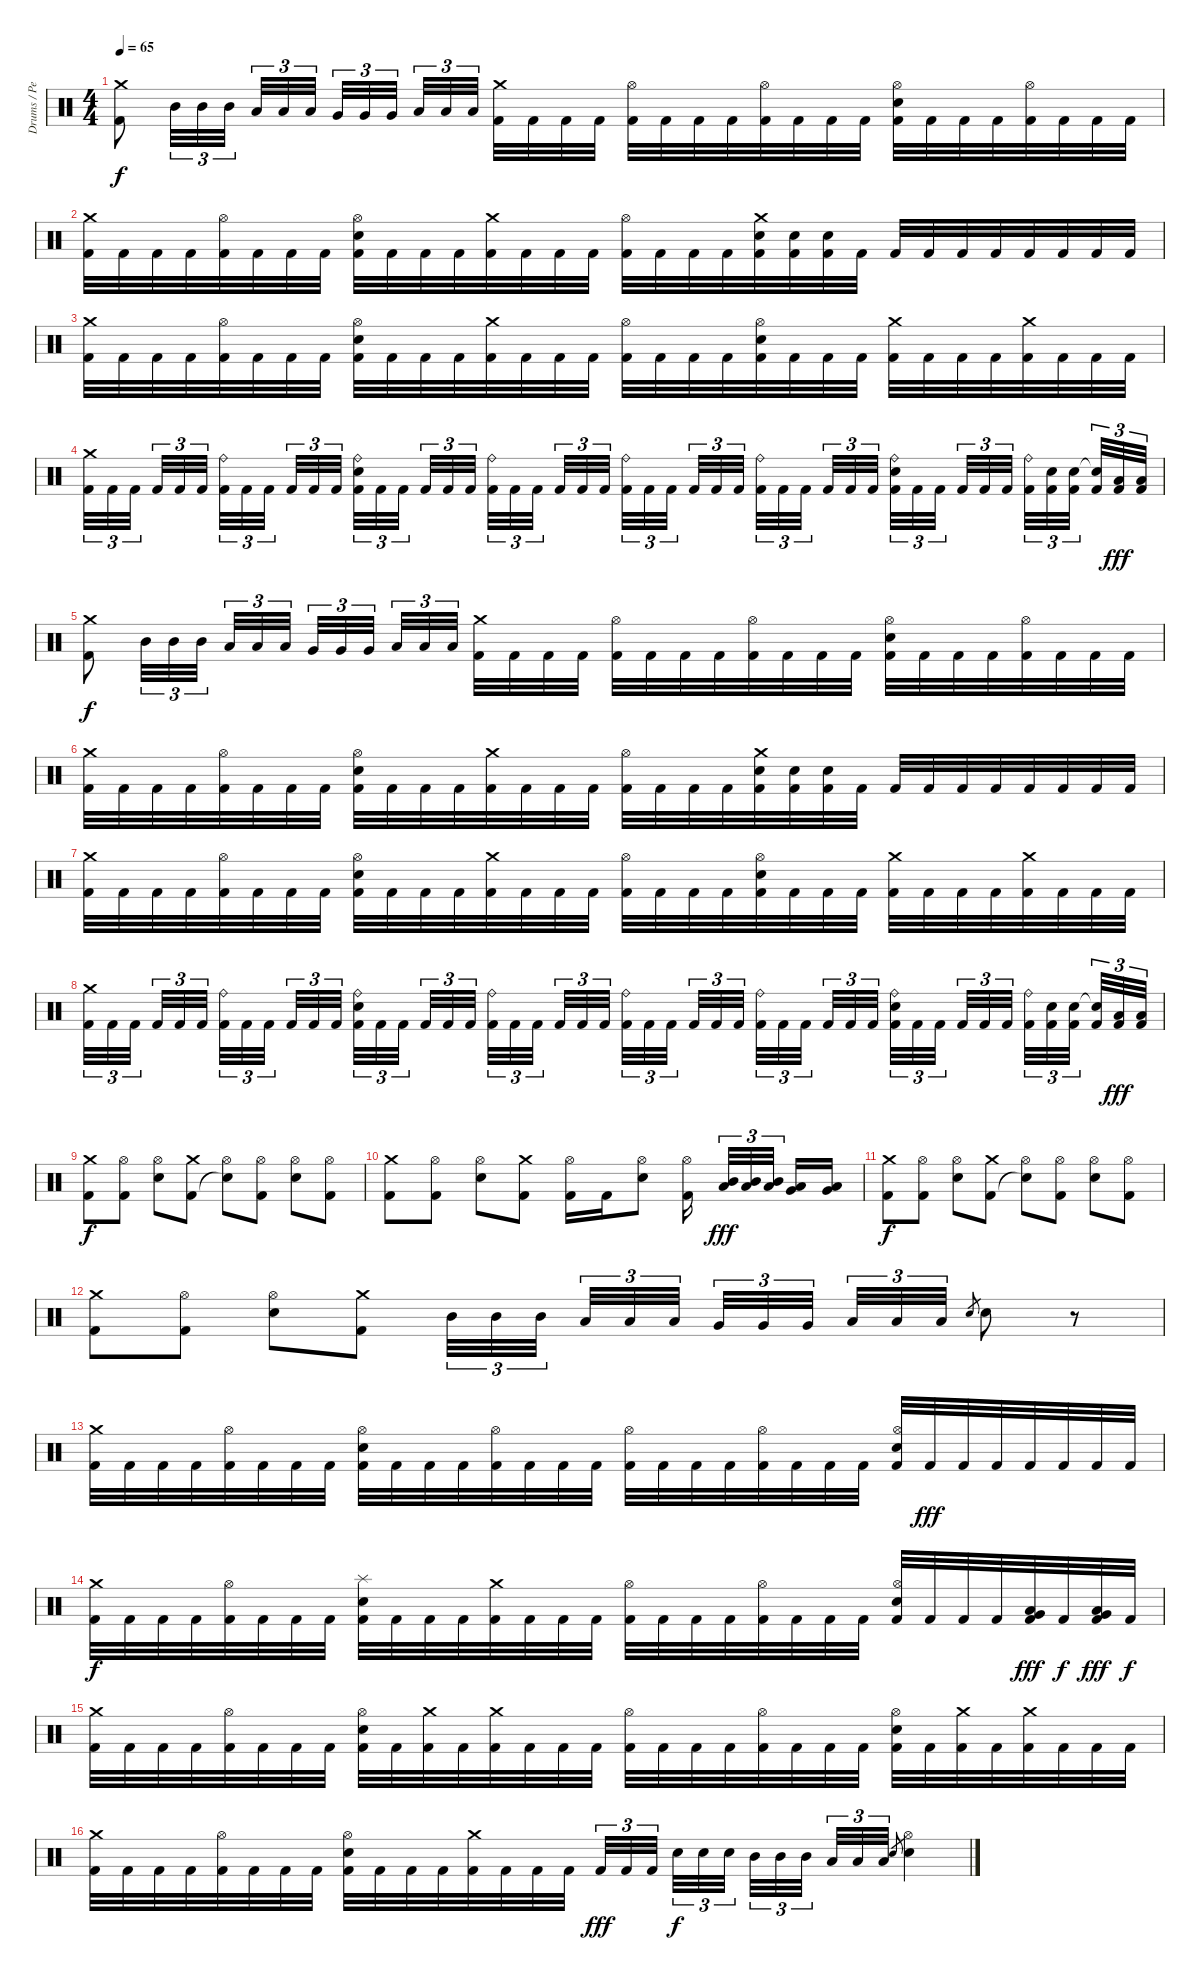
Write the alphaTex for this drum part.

\track ("Drums / Percussion" "Drums / Pe") {instrument percussion}
\staff {score}
\articulation defaults
\ts (4 4)
\tempo 65
\clef neutral
\ks c
("Crash medium (hit)" "Kick (hit) 2").8{dy f} "Mid Tom (hit)".32{tu (3 2)} "Mid Tom (hit)".32{tu (3 2)} "Mid Tom (hit)".32{tu (3 2)} "Low Tom (hit)".32{tu (3 2)} "Low Tom (hit)".32{tu (3 2)} "Low Tom (hit)".32{tu (3 2)} "Very Low Tom (hit)".32{tu (3 2)} "Very Low Tom (hit)".32{tu (3 2)} "Very Low Tom (hit)".32{tu (3 2)} "Low Floor Tom (hit)".32{tu (3 2)} "Low Floor Tom (hit)".32{tu (3 2)} "Low Floor Tom (hit)".32{tu (3 2)} ("Crash medium (hit)" "Kick (hit) 2").32 "Kick (hit) 2".32 "Kick (hit) 2".32 "Kick (hit) 2".32 ("Hi-Hat (open)" "Kick (hit) 2").32 "Kick (hit) 2".32 "Kick (hit) 2".32 "Kick (hit) 2".32 ("Hi-Hat (open)" "Kick (hit) 2").32 "Kick (hit) 2".32 "Kick (hit) 2".32 "Kick (hit) 2".32 ("Hi-Hat (open)" "Electric Snare (hit)" "Kick (hit) 2").32 "Kick (hit) 2".32 "Kick (hit) 2".32 "Kick (hit) 2".32 ("Hi-Hat (open)" "Kick (hit) 2").32 "Kick (hit) 2".32 "Kick (hit) 2".32 "Kick (hit) 2".32 |
("Crash medium (hit)" "Kick (hit) 2").32 "Kick (hit) 2".32 "Kick (hit) 2".32 "Kick (hit) 2".32 ("Hi-Hat (open)" "Kick (hit) 2").32 "Kick (hit) 2".32 "Kick (hit) 2".32 "Kick (hit) 2".32 ("Hi-Hat (open)" "Electric Snare (hit)" "Kick (hit) 2").32 "Kick (hit) 2".32 "Kick (hit) 2".32 "Kick (hit) 2".32 ("Crash medium (hit)" "Kick (hit) 2").32 "Kick (hit) 2".32 "Kick (hit) 2".32 "Kick (hit) 2".32 ("Hi-Hat (open)" "Kick (hit) 2").32 "Kick (hit) 2".32 "Kick (hit) 2".32 "Kick (hit) 2".32 ("Crash medium (hit)" "Electric Snare (hit)" "Kick (hit) 2").32 ("Electric Snare (hit)" "Kick (hit) 2").32 ("Electric Snare (hit)" "Kick (hit) 2").32 "Kick (hit) 2".32 "Kick (hit) 2".32 "Kick (hit) 2".32 "Kick (hit) 2".32 "Kick (hit) 2".32 "Kick (hit) 2".32 "Kick (hit) 2".32 "Kick (hit) 2".32 "Kick (hit) 2".32 |
("Crash medium (hit)" "Kick (hit) 2").32 "Kick (hit) 2".32 "Kick (hit) 2".32 "Kick (hit) 2".32 ("Hi-Hat (open)" "Kick (hit) 2").32 "Kick (hit) 2".32 "Kick (hit) 2".32 "Kick (hit) 2".32 ("Hi-Hat (open)" "Electric Snare (hit)" "Kick (hit) 2").32 "Kick (hit) 2".32 "Kick (hit) 2".32 "Kick (hit) 2".32 ("Crash medium (hit)" "Kick (hit) 2").32 "Kick (hit) 2".32 "Kick (hit) 2".32 "Kick (hit) 2".32 ("Hi-Hat (open)" "Kick (hit) 2").32 "Kick (hit) 2".32 "Kick (hit) 2".32 "Kick (hit) 2".32 ("Hi-Hat (open)" "Electric Snare (hit)" "Kick (hit) 2").32 "Kick (hit) 2".32 "Kick (hit) 2".32 "Kick (hit) 2".32 ("Crash medium (hit)" "Kick (hit) 2").32 "Kick (hit) 2".32 "Kick (hit) 2".32 "Kick (hit) 2".32 ("Crash medium (hit)" "Kick (hit) 2").32 "Kick (hit) 2".32 "Kick (hit) 2".32 "Kick (hit) 2".32 |
("Crash medium (hit)" "Kick (hit) 2").32{tu (3 2)} "Kick (hit) 2".32{tu (3 2)} "Kick (hit) 2".32{tu (3 2)} "Kick (hit) 2".32{tu (3 2)} "Kick (hit) 2".32{tu (3 2)} "Kick (hit) 2".32{tu (3 2)} ("Ride (bell)" "Kick (hit) 2").32{tu (3 2)} "Kick (hit) 2".32{tu (3 2)} "Kick (hit) 2".32{tu (3 2)} "Kick (hit) 2".32{tu (3 2)} "Kick (hit) 2".32{tu (3 2)} "Kick (hit) 2".32{tu (3 2)} ("Ride (bell)" "Electric Snare (hit)" "Kick (hit) 2").32{tu (3 2)} "Kick (hit) 2".32{tu (3 2)} "Kick (hit) 2".32{tu (3 2)} "Kick (hit) 2".32{tu (3 2)} "Kick (hit) 2".32{tu (3 2)} "Kick (hit) 2".32{tu (3 2)} ("Ride (bell)" "Kick (hit) 2").32{tu (3 2)} "Kick (hit) 2".32{tu (3 2)} "Kick (hit) 2".32{tu (3 2)} "Kick (hit) 2".32{tu (3 2)} "Kick (hit) 2".32{tu (3 2)} "Kick (hit) 2".32{tu (3 2)} ("Ride (bell)" "Kick (hit) 2").32{tu (3 2)} "Kick (hit) 2".32{tu (3 2)} "Kick (hit) 2".32{tu (3 2)} "Kick (hit) 2".32{tu (3 2)} "Kick (hit) 2".32{tu (3 2)} "Kick (hit) 2".32{tu (3 2)} ("Ride (bell)" "Kick (hit) 2").32{tu (3 2)} "Kick (hit) 2".32{tu (3 2)} "Kick (hit) 2".32{tu (3 2)} "Kick (hit) 2".32{tu (3 2)} "Kick (hit) 2".32{tu (3 2)} "Kick (hit) 2".32{tu (3 2)} ("Ride (bell)" "Electric Snare (hit)" "Kick (hit) 2").32{tu (3 2)} "Kick (hit) 2".32{tu (3 2)} "Kick (hit) 2".32{tu (3 2)} "Kick (hit) 2".32{tu (3 2)} "Kick (hit) 2".32{tu (3 2)} "Kick (hit) 2".32{tu (3 2)} ("Ride (bell)" "Kick (hit) 2").32{tu (3 2)} ("Electric Snare (hit)" "Kick (hit) 2").32{tu (3 2)} ("Electric Snare (hit)" "Kick (hit) 2").32{tu (3 2)} ("Electric Snare (hit)"{t} "Kick (hit) 2").32{tu (3 2)} ("Low Tom (hit)" "Kick (hit) 2").32{tu (3 2) dy fff} ("Low Tom (hit)" "Kick (hit) 2").32{tu (3 2)} |
("Crash medium (hit)" "Kick (hit) 2").8{dy f} "Mid Tom (hit)".32{tu (3 2)} "Mid Tom (hit)".32{tu (3 2)} "Mid Tom (hit)".32{tu (3 2)} "Low Tom (hit)".32{tu (3 2)} "Low Tom (hit)".32{tu (3 2)} "Low Tom (hit)".32{tu (3 2)} "Very Low Tom (hit)".32{tu (3 2)} "Very Low Tom (hit)".32{tu (3 2)} "Very Low Tom (hit)".32{tu (3 2)} "Low Floor Tom (hit)".32{tu (3 2)} "Low Floor Tom (hit)".32{tu (3 2)} "Low Floor Tom (hit)".32{tu (3 2)} ("Crash medium (hit)" "Kick (hit) 2").32 "Kick (hit) 2".32 "Kick (hit) 2".32 "Kick (hit) 2".32 ("Hi-Hat (open)" "Kick (hit) 2").32 "Kick (hit) 2".32 "Kick (hit) 2".32 "Kick (hit) 2".32 ("Hi-Hat (open)" "Kick (hit) 2").32 "Kick (hit) 2".32 "Kick (hit) 2".32 "Kick (hit) 2".32 ("Hi-Hat (open)" "Electric Snare (hit)" "Kick (hit) 2").32 "Kick (hit) 2".32 "Kick (hit) 2".32 "Kick (hit) 2".32 ("Hi-Hat (open)" "Kick (hit) 2").32 "Kick (hit) 2".32 "Kick (hit) 2".32 "Kick (hit) 2".32 |
("Crash medium (hit)" "Kick (hit) 2").32 "Kick (hit) 2".32 "Kick (hit) 2".32 "Kick (hit) 2".32 ("Hi-Hat (open)" "Kick (hit) 2").32 "Kick (hit) 2".32 "Kick (hit) 2".32 "Kick (hit) 2".32 ("Hi-Hat (open)" "Electric Snare (hit)" "Kick (hit) 2").32 "Kick (hit) 2".32 "Kick (hit) 2".32 "Kick (hit) 2".32 ("Crash medium (hit)" "Kick (hit) 2").32 "Kick (hit) 2".32 "Kick (hit) 2".32 "Kick (hit) 2".32 ("Hi-Hat (open)" "Kick (hit) 2").32 "Kick (hit) 2".32 "Kick (hit) 2".32 "Kick (hit) 2".32 ("Crash medium (hit)" "Electric Snare (hit)" "Kick (hit) 2").32 ("Electric Snare (hit)" "Kick (hit) 2").32 ("Electric Snare (hit)" "Kick (hit) 2").32 "Kick (hit) 2".32 "Kick (hit) 2".32 "Kick (hit) 2".32 "Kick (hit) 2".32 "Kick (hit) 2".32 "Kick (hit) 2".32 "Kick (hit) 2".32 "Kick (hit) 2".32 "Kick (hit) 2".32 |
("Crash medium (hit)" "Kick (hit) 2").32 "Kick (hit) 2".32 "Kick (hit) 2".32 "Kick (hit) 2".32 ("Hi-Hat (open)" "Kick (hit) 2").32 "Kick (hit) 2".32 "Kick (hit) 2".32 "Kick (hit) 2".32 ("Hi-Hat (open)" "Electric Snare (hit)" "Kick (hit) 2").32 "Kick (hit) 2".32 "Kick (hit) 2".32 "Kick (hit) 2".32 ("Crash medium (hit)" "Kick (hit) 2").32 "Kick (hit) 2".32 "Kick (hit) 2".32 "Kick (hit) 2".32 ("Hi-Hat (open)" "Kick (hit) 2").32 "Kick (hit) 2".32 "Kick (hit) 2".32 "Kick (hit) 2".32 ("Hi-Hat (open)" "Electric Snare (hit)" "Kick (hit) 2").32 "Kick (hit) 2".32 "Kick (hit) 2".32 "Kick (hit) 2".32 ("Crash medium (hit)" "Kick (hit) 2").32 "Kick (hit) 2".32 "Kick (hit) 2".32 "Kick (hit) 2".32 ("Crash medium (hit)" "Kick (hit) 2").32 "Kick (hit) 2".32 "Kick (hit) 2".32 "Kick (hit) 2".32 |
("Crash medium (hit)" "Kick (hit) 2").32{tu (3 2)} "Kick (hit) 2".32{tu (3 2)} "Kick (hit) 2".32{tu (3 2)} "Kick (hit) 2".32{tu (3 2)} "Kick (hit) 2".32{tu (3 2)} "Kick (hit) 2".32{tu (3 2)} ("Ride (bell)" "Kick (hit) 2").32{tu (3 2)} "Kick (hit) 2".32{tu (3 2)} "Kick (hit) 2".32{tu (3 2)} "Kick (hit) 2".32{tu (3 2)} "Kick (hit) 2".32{tu (3 2)} "Kick (hit) 2".32{tu (3 2)} ("Ride (bell)" "Electric Snare (hit)" "Kick (hit) 2").32{tu (3 2)} "Kick (hit) 2".32{tu (3 2)} "Kick (hit) 2".32{tu (3 2)} "Kick (hit) 2".32{tu (3 2)} "Kick (hit) 2".32{tu (3 2)} "Kick (hit) 2".32{tu (3 2)} ("Ride (bell)" "Kick (hit) 2").32{tu (3 2)} "Kick (hit) 2".32{tu (3 2)} "Kick (hit) 2".32{tu (3 2)} "Kick (hit) 2".32{tu (3 2)} "Kick (hit) 2".32{tu (3 2)} "Kick (hit) 2".32{tu (3 2)} ("Ride (bell)" "Kick (hit) 2").32{tu (3 2)} "Kick (hit) 2".32{tu (3 2)} "Kick (hit) 2".32{tu (3 2)} "Kick (hit) 2".32{tu (3 2)} "Kick (hit) 2".32{tu (3 2)} "Kick (hit) 2".32{tu (3 2)} ("Ride (bell)" "Kick (hit) 2").32{tu (3 2)} "Kick (hit) 2".32{tu (3 2)} "Kick (hit) 2".32{tu (3 2)} "Kick (hit) 2".32{tu (3 2)} "Kick (hit) 2".32{tu (3 2)} "Kick (hit) 2".32{tu (3 2)} ("Ride (bell)" "Electric Snare (hit)" "Kick (hit) 2").32{tu (3 2)} "Kick (hit) 2".32{tu (3 2)} "Kick (hit) 2".32{tu (3 2)} "Kick (hit) 2".32{tu (3 2)} "Kick (hit) 2".32{tu (3 2)} "Kick (hit) 2".32{tu (3 2)} ("Ride (bell)" "Kick (hit) 2").32{tu (3 2)} ("Electric Snare (hit)" "Kick (hit) 2").32{tu (3 2)} ("Electric Snare (hit)" "Kick (hit) 2").32{tu (3 2)} ("Electric Snare (hit)"{t} "Kick (hit) 2").32{tu (3 2)} ("Low Tom (hit)" "Kick (hit) 2").32{tu (3 2) dy fff} ("Low Tom (hit)" "Kick (hit) 2").32{tu (3 2)} |
("Crash medium (hit)" "Kick (hit) 2").8{dy f} ("Hi-Hat (open)" "Kick (hit) 2").8 ("Hi-Hat (open)" "Electric Snare (hit)").8 ("Crash medium (hit)" "Kick (hit) 2").8 ("Hi-Hat (open)" "Snare (hit)"{t}).8 ("Hi-Hat (open)" "Kick (hit) 2").8 ("Hi-Hat (open)" "Electric Snare (hit)").8 ("Hi-Hat (open)" "Kick (hit) 2").8 |
("Crash medium (hit)" "Kick (hit) 2").8 ("Hi-Hat (open)" "Kick (hit) 2").8 ("Hi-Hat (open)" "Electric Snare (hit)").8 ("Crash medium (hit)" "Kick (hit) 2").8 ("Hi-Hat (open)" "Kick (hit) 2").16 "Kick (hit) 2".16 ("Hi-Hat (open)" "Electric Snare (hit)").8 ("Hi-Hat (open)" "Kick (hit) 2").16 ("Low Tom (hit)" "Mid Tom (hit)").32{tu (3 2) dy fff} ("Low Tom (hit)" "Mid Tom (hit)").32{tu (3 2)} ("Low Tom (hit)" "Mid Tom (hit)").32{tu (3 2)} ("Very Low Tom (hit)" "Low Tom (hit)").16 ("Very Low Tom (hit)" "Low Tom (hit)").16 |
("Crash medium (hit)" "Kick (hit) 2").8{dy f} ("Hi-Hat (open)" "Kick (hit) 2").8 ("Hi-Hat (open)" "Electric Snare (hit)").8 ("Crash medium (hit)" "Kick (hit) 2").8 ("Hi-Hat (open)" "Snare (hit)"{t}).8 ("Hi-Hat (open)" "Kick (hit) 2").8 ("Hi-Hat (open)" "Electric Snare (hit)").8 ("Hi-Hat (open)" "Kick (hit) 2").8 |
("Crash medium (hit)" "Kick (hit) 2").8 ("Hi-Hat (open)" "Kick (hit) 2").8 ("Hi-Hat (open)" "Electric Snare (hit)").8 ("Crash medium (hit)" "Kick (hit) 2").8 "Mid Tom (hit)".32{tu (3 2)} "Mid Tom (hit)".32{tu (3 2)} "Mid Tom (hit)".32{tu (3 2)} "Low Tom (hit)".32{tu (3 2)} "Low Tom (hit)".32{tu (3 2)} "Low Tom (hit)".32{tu (3 2)} "Very Low Tom (hit)".32{tu (3 2)} "Very Low Tom (hit)".32{tu (3 2)} "Very Low Tom (hit)".32{tu (3 2)} "Low Floor Tom (hit)".32{tu (3 2)} "Low Floor Tom (hit)".32{tu (3 2)} "Low Floor Tom (hit)".32{tu (3 2)} "Snare (hit) 2".8{gr} "Snare (hit) 2".8 r.8 |
("Crash medium (hit)" "Kick (hit) 2").32 "Kick (hit) 2".32 "Kick (hit) 2".32 "Kick (hit) 2".32 ("Hi-Hat (open)" "Kick (hit) 2").32 "Kick (hit) 2".32 "Kick (hit) 2".32 "Kick (hit) 2".32 ("Hi-Hat (open)" "Electric Snare (hit)" "Kick (hit) 2").32 "Kick (hit) 2".32 "Kick (hit) 2".32 "Kick (hit) 2".32 ("Hi-Hat (open)" "Kick (hit) 2").32 "Kick (hit) 2".32 "Kick (hit) 2".32 "Kick (hit) 2".32 ("Hi-Hat (open)" "Kick (hit) 2").32 "Kick (hit) 2".32 "Kick (hit) 2".32 "Kick (hit) 2".32 ("Hi-Hat (open)" "Kick (hit) 2").32 "Kick (hit) 2".32 "Kick (hit) 2".32 "Kick (hit) 2".32 ("Hi-Hat (open)" "Electric Snare (hit)" "Kick (hit) 2").32 "Kick (hit) 2".32{dy fff} "Kick (hit) 2".32 "Kick (hit) 2".32 "Kick (hit) 2".32 "Kick (hit) 2".32 "Kick (hit) 2".32 "Kick (hit) 2".32 |
("Crash medium (hit)" "Kick (hit) 2").32{dy f} "Kick (hit) 2".32 "Kick (hit) 2".32 "Kick (hit) 2".32 ("Hi-Hat (open)" "Kick (hit) 2").32 "Kick (hit) 2".32 "Kick (hit) 2".32 "Kick (hit) 2".32 ("Splash (hit)" "Electric Snare (hit)" "Kick (hit) 2").32 "Kick (hit) 2".32 "Kick (hit) 2".32 "Kick (hit) 2".32 ("Crash medium (hit)" "Kick (hit) 2").32 "Kick (hit) 2".32 "Kick (hit) 2".32 "Kick (hit) 2".32 ("Hi-Hat (open)" "Kick (hit) 2").32 "Kick (hit) 2".32 "Kick (hit) 2".32 "Kick (hit) 2".32 ("Hi-Hat (open)" "Kick (hit) 2").32 "Kick (hit) 2".32 "Kick (hit) 2".32 "Kick (hit) 2".32 ("Hi-Hat (open)" "Electric Snare (hit)" "Kick (hit) 2").32 "Kick (hit) 2".32 "Kick (hit) 2".32 "Kick (hit) 2".32 ("Very Low Tom (hit)" "Low Tom (hit)" "Kick (hit) 2").32{dy fff} "Kick (hit) 2".32{dy f} ("Very Low Tom (hit)" "Low Tom (hit)" "Kick (hit) 2").32{dy fff} "Kick (hit) 2".32{dy f} |
("Crash medium (hit)" "Kick (hit) 2").32 "Kick (hit) 2".32 "Kick (hit) 2".32 "Kick (hit) 2".32 ("Hi-Hat (open)" "Kick (hit) 2").32 "Kick (hit) 2".32 "Kick (hit) 2".32 "Kick (hit) 2".32 ("Hi-Hat (open)" "Electric Snare (hit)" "Kick (hit) 2").32 "Kick (hit) 2".32 ("Crash medium (hit)" "Kick (hit) 2").32 "Kick (hit) 2".32 ("Crash medium (hit)" "Kick (hit) 2").32 "Kick (hit) 2".32 "Kick (hit) 2".32 "Kick (hit) 2".32 ("Hi-Hat (open)" "Kick (hit) 2").32 "Kick (hit) 2".32 "Kick (hit) 2".32 "Kick (hit) 2".32 ("Hi-Hat (open)" "Kick (hit) 2").32 "Kick (hit) 2".32 "Kick (hit) 2".32 "Kick (hit) 2".32 ("Hi-Hat (open)" "Electric Snare (hit)" "Kick (hit) 2").32 "Kick (hit) 2".32 ("Crash medium (hit)" "Kick (hit) 2").32 "Kick (hit) 2".32 ("Crash medium (hit)" "Kick (hit) 2").32 "Kick (hit) 2".32 "Kick (hit) 2".32 "Kick (hit) 2".32 |
("Crash medium (hit)" "Kick (hit) 2").32 "Kick (hit) 2".32 "Kick (hit) 2".32 "Kick (hit) 2".32 ("Hi-Hat (open)" "Kick (hit) 2").32 "Kick (hit) 2".32 "Kick (hit) 2".32 "Kick (hit) 2".32 ("Hi-Hat (open)" "Electric Snare (hit)" "Kick (hit) 2").32 "Kick (hit) 2".32 "Kick (hit) 2".32 "Kick (hit) 2".32 ("Crash medium (hit)" "Kick (hit) 2").32 "Kick (hit) 2".32 "Kick (hit) 2".32 "Kick (hit) 2".32 "Kick (hit) 2".32{tu (3 2) dy fff} "Kick (hit) 2".32{tu (3 2)} "Kick (hit) 2".32{tu (3 2)} "Snare (hit) 2".32{tu (3 2) dy f} "Snare (hit) 2".32{tu (3 2)} "Snare (hit) 2".32{tu (3 2)} "Mid Tom (hit)".32{tu (3 2)} "Mid Tom (hit)".32{tu (3 2)} "Mid Tom (hit)".32{tu (3 2)} "Low Tom (hit)".32{tu (3 2)} "Low Tom (hit)".32{tu (3 2)} "Low Tom (hit)".32{tu (3 2)} "Snare (hit) 2".8{gr} ("Hi-Hat (open)" "Snare (hit) 2").4
